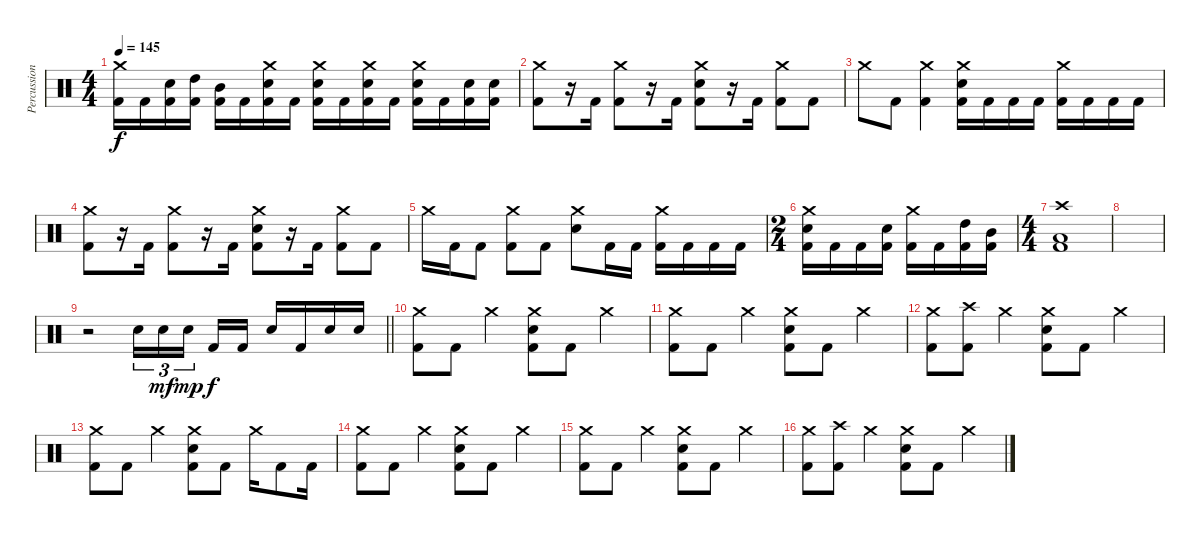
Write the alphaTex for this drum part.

\track ("Percussions" "Percussion") {instrument percussion}
\staff {score}
\articulation defaults
\ts (4 4)
\tempo 145
\clef neutral
\ks c
("Crash medium (hit)" "Kick (hit) 2").16{dy f} "Kick (hit) 2".16 ("Electric Snare (hit)" "Kick (hit) 2").16 ("High Tom (hit)" "Kick (hit) 2").16 ("Mid Tom (hit)" "Kick (hit) 2").16 "Kick (hit) 2".16 ("Crash medium (hit)" "Electric Snare (hit)" "Kick (hit) 2").16 "Kick (hit) 2".16 ("Crash medium (hit)" "Electric Snare (hit)" "Kick (hit) 2").16 "Kick (hit) 2".16 ("Crash medium (hit)" "Electric Snare (hit)" "Kick (hit) 2").16 "Kick (hit) 2".16 ("Crash medium (hit)" "Electric Snare (hit)" "Kick (hit) 2").16 "Kick (hit) 2".16 ("Electric Snare (hit)" "Kick (hit) 2").16 ("Electric Snare (hit)" "Kick (hit) 2").16 |
("Crash medium (hit)" "Kick (hit) 2").8 r.16 "Kick (hit) 2".16 ("Crash medium (hit)" "Kick (hit) 2").8 r.16 "Kick (hit) 2".16 ("Crash medium (hit)" "Electric Snare (hit)" "Kick (hit) 2").8 r.16 "Kick (hit) 2".16 ("Crash medium (hit)" "Kick (hit) 2").8 "Kick (hit) 2".8 |
"Crash medium (hit)".8 "Kick (hit) 2".8 ("Crash medium (hit)" "Kick (hit) 2").4 ("Crash medium (hit)" "Electric Snare (hit)" "Kick (hit) 2").16 "Kick (hit) 2".16 "Kick (hit) 2".16 "Kick (hit) 2".16 ("Crash medium (hit)" "Kick (hit) 2").16 "Kick (hit) 2".16 "Kick (hit) 2".16 "Kick (hit) 2".16 |
("Crash medium (hit)" "Kick (hit) 2").8 r.16 "Kick (hit) 2".16 ("Crash medium (hit)" "Kick (hit) 2").8 r.16 "Kick (hit) 2".16 ("Crash medium (hit)" "Electric Snare (hit)" "Kick (hit) 2").8 r.16 "Kick (hit) 2".16 ("Crash medium (hit)" "Kick (hit) 2").8 "Kick (hit) 2".8 |
"Crash medium (hit)".16 "Kick (hit) 2".16 "Kick (hit) 2".8 ("Crash medium (hit)" "Kick (hit) 2").8 "Kick (hit) 2".8 ("Crash medium (hit)" "Electric Snare (hit)").8 "Kick (hit) 2".16 "Kick (hit) 2".16 ("Crash medium (hit)" "Kick (hit) 2").16 "Kick (hit) 2".16 "Kick (hit) 2".16 "Kick (hit) 2".16 |
\ts (2 4)
("Crash medium (hit)" "Electric Snare (hit)" "Kick (hit) 2").16 "Kick (hit) 2".16 "Kick (hit) 2".16 ("Electric Snare (hit)" "Kick (hit) 2").16 ("Crash medium (hit)" "Kick (hit) 2").16 "Kick (hit) 2".16 ("High Tom (hit)" "Kick (hit) 2").16 ("Mid Tom (hit)" "Kick (hit) 2").16 |
\ts (4 4)
("Crash high (hit)" "Low Tom (hit)" "Kick (hit) 2").1 |
|
\barLineRight lightlight
r.2 "Electric Snare (hit)".16{tu (3 2)} "Electric Snare (hit)".16{tu (3 2) dy mf} "Electric Snare (hit)".16{tu (3 2) dy mp beam splitsecondary} "Kick (hit) 2".16{dy f} "Kick (hit) 2".16 "Electric Snare (hit)".16 "Kick (hit) 2".16 "Electric Snare (hit)".16 "Electric Snare (hit)".16 |
\section ("" "")
("Crash medium (hit)" "Kick (hit) 2").8 "Kick (hit) 2".8 "Crash medium (hit)".4 ("Crash medium (hit)" "Electric Snare (hit)" "Kick (hit) 2").8 "Kick (hit) 2".8 "Crash medium (hit)".4 |
("Crash medium (hit)" "Kick (hit) 2").8 "Kick (hit) 2".8 "Crash medium (hit)".4 ("Crash medium (hit)" "Electric Snare (hit)" "Kick (hit) 2").8 "Kick (hit) 2".8 "Crash medium (hit)".4 |
("Crash medium (hit)" "Kick (hit) 2").8 ("Crash high (hit)" "Kick (hit) 2").8 "Crash medium (hit)".4 ("Crash medium (hit)" "Electric Snare (hit)" "Kick (hit) 2").8 "Kick (hit) 2".8 "Crash medium (hit)".4 |
("Crash medium (hit)" "Kick (hit) 2").8 "Kick (hit) 2".8 "Crash medium (hit)".4 ("Crash medium (hit)" "Electric Snare (hit)" "Kick (hit) 2").8 "Kick (hit) 2".8 "Crash medium (hit)".16 "Kick (hit) 2".8 "Kick (hit) 2".16 |
("Crash medium (hit)" "Kick (hit) 2").8 "Kick (hit) 2".8 "Crash medium (hit)".4 ("Crash medium (hit)" "Electric Snare (hit)" "Kick (hit) 2").8 "Kick (hit) 2".8 "Crash medium (hit)".4 |
("Crash medium (hit)" "Kick (hit) 2").8 "Kick (hit) 2".8 "Crash medium (hit)".4 ("Crash medium (hit)" "Electric Snare (hit)" "Kick (hit) 2").8 "Kick (hit) 2".8 "Crash medium (hit)".4 |
("Crash medium (hit)" "Kick (hit) 2").8 ("Crash high (hit)" "Kick (hit) 2").8 "Crash medium (hit)".4 ("Crash medium (hit)" "Electric Snare (hit)" "Kick (hit) 2").8 "Kick (hit) 2".8 "Crash medium (hit)".4
